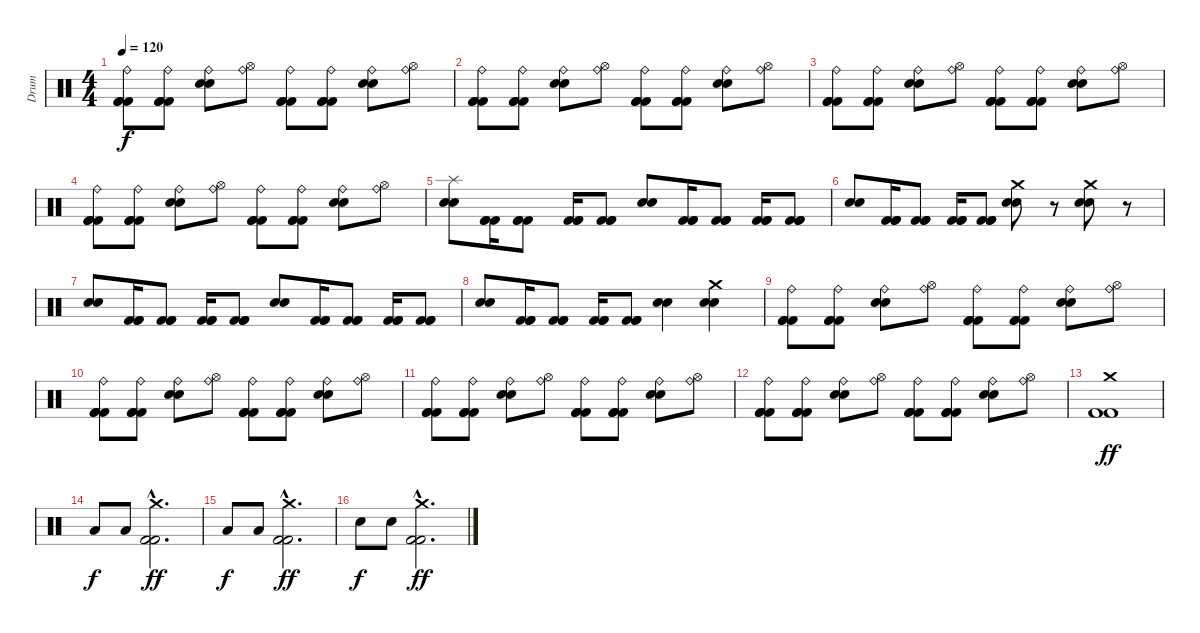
\track ("Drum" "Drum") {instrument percussion}
\staff {score}
\articulation defaults
\ts (4 4)
\tempo 120
\clef neutral
\ks c
("Ride (bell)" "Kick (hit) 2" "Kick (hit) 2" "Kick (hit) 2").8{dy f} ("Ride (bell)" "Kick (hit) 2" "Kick (hit) 2" "Kick (hit) 2").8 ("Ride (bell)" "Snare (hit) 2" "Snare (hit) 2").8 ("Ride (bell)" "Hi-Hat (open)").8 ("Ride (bell)" "Kick (hit) 2" "Kick (hit) 2" "Kick (hit) 2").8 ("Ride (bell)" "Kick (hit) 2" "Kick (hit) 2" "Kick (hit) 2").8 ("Ride (bell)" "Snare (hit) 2" "Snare (hit) 2").8 ("Ride (bell)" "Hi-Hat (open)").8 |
("Ride (bell)" "Kick (hit) 2" "Kick (hit) 2" "Kick (hit) 2").8 ("Ride (bell)" "Kick (hit) 2" "Kick (hit) 2" "Kick (hit) 2").8 ("Ride (bell)" "Snare (hit) 2" "Snare (hit) 2").8 ("Ride (bell)" "Hi-Hat (open)").8 ("Ride (bell)" "Kick (hit) 2" "Kick (hit) 2" "Kick (hit) 2").8 ("Ride (bell)" "Kick (hit) 2" "Kick (hit) 2" "Kick (hit) 2").8 ("Ride (bell)" "Snare (hit) 2" "Snare (hit) 2").8 ("Ride (bell)" "Hi-Hat (open)").8 |
("Ride (bell)" "Kick (hit) 2" "Kick (hit) 2" "Kick (hit) 2").8 ("Ride (bell)" "Kick (hit) 2" "Kick (hit) 2" "Kick (hit) 2").8 ("Ride (bell)" "Snare (hit) 2" "Snare (hit) 2").8 ("Ride (bell)" "Hi-Hat (open)").8 ("Ride (bell)" "Kick (hit) 2" "Kick (hit) 2" "Kick (hit) 2").8 ("Ride (bell)" "Kick (hit) 2" "Kick (hit) 2" "Kick (hit) 2").8 ("Ride (bell)" "Snare (hit) 2" "Snare (hit) 2").8 ("Ride (bell)" "Hi-Hat (open)").8 |
("Ride (bell)" "Kick (hit) 2" "Kick (hit) 2" "Kick (hit) 2").8 ("Ride (bell)" "Kick (hit) 2" "Kick (hit) 2" "Kick (hit) 2").8 ("Ride (bell)" "Snare (hit) 2" "Snare (hit) 2").8 ("Ride (bell)" "Hi-Hat (open)").8 ("Ride (bell)" "Kick (hit) 2" "Kick (hit) 2" "Kick (hit) 2").8 ("Ride (bell)" "Kick (hit) 2" "Kick (hit) 2" "Kick (hit) 2").8 ("Ride (bell)" "Snare (hit) 2" "Snare (hit) 2").8 ("Ride (bell)" "Hi-Hat (open)").8 |
("Splash (hit)" "Snare (hit) 2" "Snare (hit) 2").8 ("Kick (hit) 2" "Kick (hit) 2" "Kick (hit) 2").16 ("Kick (hit) 2" "Kick (hit) 2" "Kick (hit) 2").8 ("Kick (hit) 2" "Kick (hit) 2" "Kick (hit) 2").16 ("Kick (hit) 2" "Kick (hit) 2" "Kick (hit) 2").8 ("Snare (hit) 2" "Snare (hit) 2").8 ("Kick (hit) 2" "Kick (hit) 2" "Kick (hit) 2").16 ("Kick (hit) 2" "Kick (hit) 2" "Kick (hit) 2").8 ("Kick (hit) 2" "Kick (hit) 2" "Kick (hit) 2").16 ("Kick (hit) 2" "Kick (hit) 2" "Kick (hit) 2").8 |
("Snare (hit) 2" "Snare (hit) 2").8 ("Kick (hit) 2" "Kick (hit) 2" "Kick (hit) 2").16 ("Kick (hit) 2" "Kick (hit) 2" "Kick (hit) 2").8 ("Kick (hit) 2" "Kick (hit) 2" "Kick (hit) 2").16 ("Kick (hit) 2" "Kick (hit) 2" "Kick (hit) 2").8 ("Crash medium (hit)" "Snare (hit) 2" "Snare (hit) 2").8 r.8 ("Crash medium (hit)" "Snare (hit) 2" "Snare (hit) 2").8 r.8 |
("Snare (hit) 2" "Snare (hit) 2").8 ("Kick (hit) 2" "Kick (hit) 2" "Kick (hit) 2").16 ("Kick (hit) 2" "Kick (hit) 2" "Kick (hit) 2").8 ("Kick (hit) 2" "Kick (hit) 2" "Kick (hit) 2").16 ("Kick (hit) 2" "Kick (hit) 2" "Kick (hit) 2").8 ("Snare (hit) 2" "Snare (hit) 2").8 ("Kick (hit) 2" "Kick (hit) 2" "Kick (hit) 2").16 ("Kick (hit) 2" "Kick (hit) 2" "Kick (hit) 2").8 ("Kick (hit) 2" "Kick (hit) 2" "Kick (hit) 2").16 ("Kick (hit) 2" "Kick (hit) 2" "Kick (hit) 2").8 |
("Snare (hit) 2" "Snare (hit) 2").8 ("Kick (hit) 2" "Kick (hit) 2" "Kick (hit) 2").16 ("Kick (hit) 2" "Kick (hit) 2" "Kick (hit) 2").8 ("Kick (hit) 2" "Kick (hit) 2" "Kick (hit) 2").16 ("Kick (hit) 2" "Kick (hit) 2" "Kick (hit) 2").8 ("Snare (hit) 2" "Snare (hit) 2").4 ("Crash medium (hit)" "Snare (hit) 2" "Snare (hit) 2").4 |
("Ride (bell)" "Kick (hit) 2" "Kick (hit) 2" "Kick (hit) 2").8 ("Ride (bell)" "Kick (hit) 2" "Kick (hit) 2" "Kick (hit) 2").8 ("Ride (bell)" "Snare (hit) 2" "Snare (hit) 2").8 ("Ride (bell)" "Hi-Hat (open)").8 ("Ride (bell)" "Kick (hit) 2" "Kick (hit) 2" "Kick (hit) 2").8 ("Ride (bell)" "Kick (hit) 2" "Kick (hit) 2" "Kick (hit) 2").8 ("Ride (bell)" "Snare (hit) 2" "Snare (hit) 2").8 ("Ride (bell)" "Hi-Hat (open)").8 |
("Ride (bell)" "Kick (hit) 2" "Kick (hit) 2" "Kick (hit) 2").8 ("Ride (bell)" "Kick (hit) 2" "Kick (hit) 2" "Kick (hit) 2").8 ("Ride (bell)" "Snare (hit) 2" "Snare (hit) 2").8 ("Ride (bell)" "Hi-Hat (open)").8 ("Ride (bell)" "Kick (hit) 2" "Kick (hit) 2" "Kick (hit) 2").8 ("Ride (bell)" "Kick (hit) 2" "Kick (hit) 2" "Kick (hit) 2").8 ("Ride (bell)" "Snare (hit) 2" "Snare (hit) 2").8 ("Ride (bell)" "Hi-Hat (open)").8 |
("Ride (bell)" "Kick (hit) 2" "Kick (hit) 2" "Kick (hit) 2").8 ("Ride (bell)" "Kick (hit) 2" "Kick (hit) 2" "Kick (hit) 2").8 ("Ride (bell)" "Snare (hit) 2" "Snare (hit) 2").8 ("Ride (bell)" "Hi-Hat (open)").8 ("Ride (bell)" "Kick (hit) 2" "Kick (hit) 2" "Kick (hit) 2").8 ("Ride (bell)" "Kick (hit) 2" "Kick (hit) 2" "Kick (hit) 2").8 ("Ride (bell)" "Snare (hit) 2" "Snare (hit) 2").8 ("Ride (bell)" "Hi-Hat (open)").8 |
("Ride (bell)" "Kick (hit) 2" "Kick (hit) 2" "Kick (hit) 2").8 ("Ride (bell)" "Kick (hit) 2" "Kick (hit) 2" "Kick (hit) 2").8 ("Ride (bell)" "Snare (hit) 2" "Snare (hit) 2").8 ("Ride (bell)" "Hi-Hat (open)").8 ("Ride (bell)" "Kick (hit) 2" "Kick (hit) 2" "Kick (hit) 2").8 ("Ride (bell)" "Kick (hit) 2" "Kick (hit) 2" "Kick (hit) 2").8 ("Ride (bell)" "Snare (hit) 2" "Snare (hit) 2").8 ("Ride (bell)" "Hi-Hat (open)").8 |
("Crash medium (hit)" "Kick (hit) 2" "Kick (hit) 2").1{dy ff} |
"Low Tom (hit)".8{dy f} "Low Tom (hit)".8 ("Crash medium (hit)"{hac} "Kick (hit) 2"{hac} "Kick (hit) 2"{hac}).2{d dy ff} |
"Low Tom (hit)".8{dy f} "Low Tom (hit)".8 ("Crash medium (hit)"{hac} "Kick (hit) 2"{hac} "Kick (hit) 2"{hac}).2{d dy ff} |
"Snare (hit) 2".8{dy f} "Snare (hit) 2".8 ("Crash medium (hit)"{hac} "Kick (hit) 2"{hac} "Kick (hit) 2"{hac}).2{d dy ff}
